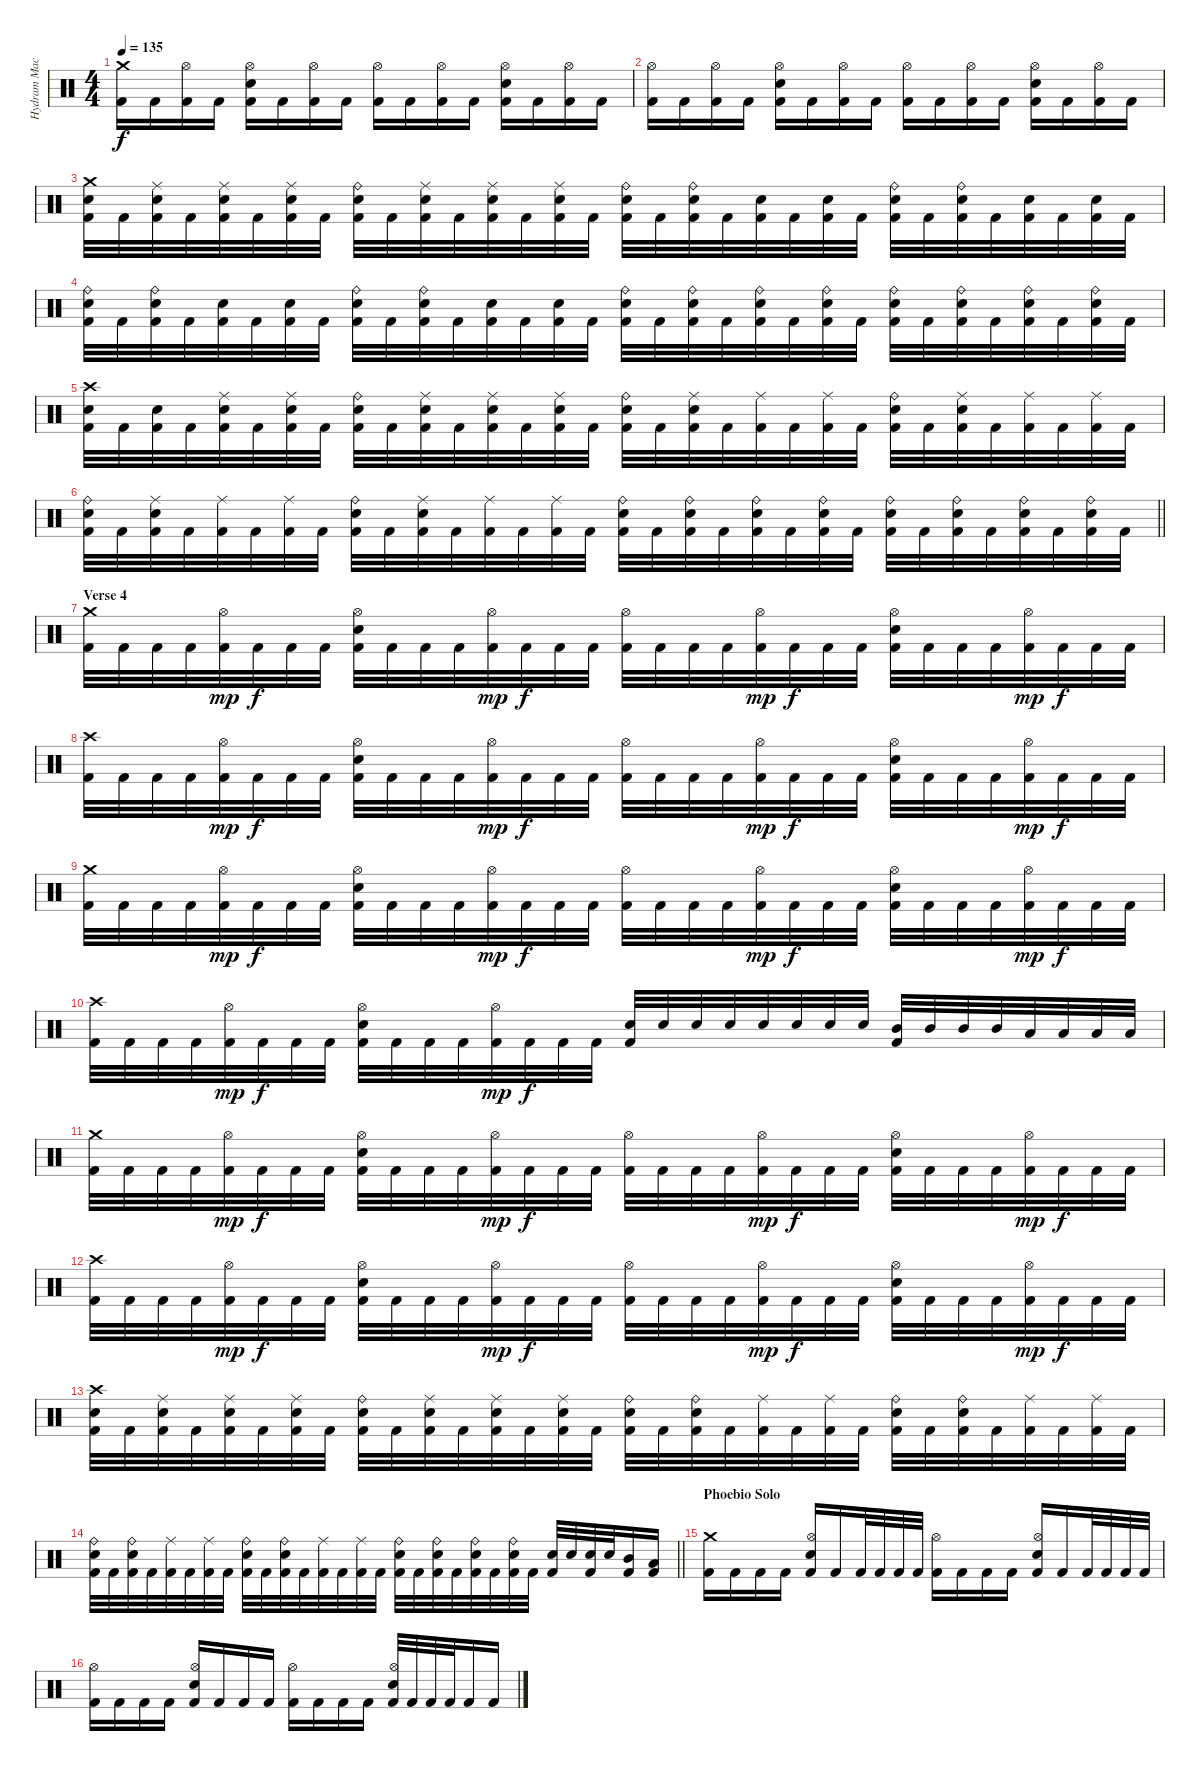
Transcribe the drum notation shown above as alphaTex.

\track ("Hydram Machine" "Hydram Mac") {instrument percussion}
\staff {score}
\articulation defaults
\ts (4 4)
\tempo 135
\clef neutral
\ks c
("Crash medium (hit)" "Kick (hit) 2").16{dy f} "Kick (hit) 2".16 ("Hi-Hat (open)" "Kick (hit) 2").16 "Kick (hit) 2".16 ("Hi-Hat (open)" "Electric Snare (hit)" "Kick (hit) 2").16 "Kick (hit) 2".16 ("Hi-Hat (open)" "Kick (hit) 2").16 "Kick (hit) 2".16 ("Hi-Hat (open)" "Kick (hit) 2").16 "Kick (hit) 2".16 ("Hi-Hat (open)" "Kick (hit) 2").16 "Kick (hit) 2".16 ("Hi-Hat (open)" "Electric Snare (hit)" "Kick (hit) 2").16 "Kick (hit) 2".16 ("Hi-Hat (open)" "Kick (hit) 2").16 "Kick (hit) 2".16 |
("Hi-Hat (open)" "Kick (hit) 2").16 "Kick (hit) 2".16 ("Hi-Hat (open)" "Kick (hit) 2").16 "Kick (hit) 2".16 ("Hi-Hat (open)" "Electric Snare (hit)" "Kick (hit) 2").16 "Kick (hit) 2".16 ("Hi-Hat (open)" "Kick (hit) 2").16 "Kick (hit) 2".16 ("Hi-Hat (open)" "Kick (hit) 2").16 "Kick (hit) 2".16 ("Hi-Hat (open)" "Kick (hit) 2").16 "Kick (hit) 2".16 ("Hi-Hat (open)" "Electric Snare (hit)" "Kick (hit) 2").16 "Kick (hit) 2".16 ("Hi-Hat (open)" "Kick (hit) 2").16 "Kick (hit) 2".16 |
("Crash medium (hit)" "Electric Snare (hit)" "Kick (hit) 2").32 "Kick (hit) 2".32 ("Ride (middle)" "Electric Snare (hit)" "Kick (hit) 2").32 "Kick (hit) 2".32 ("Ride (middle)" "Electric Snare (hit)" "Kick (hit) 2").32 "Kick (hit) 2".32 ("Ride (middle)" "Electric Snare (hit)" "Kick (hit) 2").32 "Kick (hit) 2".32 ("Ride (bell)" "Electric Snare (hit)" "Kick (hit) 2").32 "Kick (hit) 2".32 ("Ride (middle)" "Electric Snare (hit)" "Kick (hit) 2").32 "Kick (hit) 2".32 ("Ride (middle)" "Electric Snare (hit)" "Kick (hit) 2").32 "Kick (hit) 2".32 ("Ride (middle)" "Electric Snare (hit)" "Kick (hit) 2").32 "Kick (hit) 2".32 ("Ride (bell)" "Electric Snare (hit)" "Kick (hit) 2").32 "Kick (hit) 2".32 ("Ride (bell)" "Electric Snare (hit)" "Kick (hit) 2").32 "Kick (hit) 2".32 ("Electric Snare (hit)" "Kick (hit) 2").32 "Kick (hit) 2".32 ("Electric Snare (hit)" "Kick (hit) 2").32 "Kick (hit) 2".32 ("Ride (bell)" "Electric Snare (hit)" "Kick (hit) 2").32 "Kick (hit) 2".32 ("Ride (bell)" "Electric Snare (hit)" "Kick (hit) 2").32 "Kick (hit) 2".32 ("Electric Snare (hit)" "Kick (hit) 2").32 "Kick (hit) 2".32 ("Electric Snare (hit)" "Kick (hit) 2").32 "Kick (hit) 2".32 |
("Ride (bell)" "Electric Snare (hit)" "Kick (hit) 2").32 "Kick (hit) 2".32 ("Ride (bell)" "Electric Snare (hit)" "Kick (hit) 2").32 "Kick (hit) 2".32 ("Electric Snare (hit)" "Kick (hit) 2").32 "Kick (hit) 2".32 ("Electric Snare (hit)" "Kick (hit) 2").32 "Kick (hit) 2".32 ("Ride (bell)" "Electric Snare (hit)" "Kick (hit) 2").32 "Kick (hit) 2".32 ("Ride (bell)" "Electric Snare (hit)" "Kick (hit) 2").32 "Kick (hit) 2".32 ("Electric Snare (hit)" "Kick (hit) 2").32 "Kick (hit) 2".32 ("Electric Snare (hit)" "Kick (hit) 2").32 "Kick (hit) 2".32 ("Ride (bell)" "Electric Snare (hit)" "Kick (hit) 2").32 "Kick (hit) 2".32 ("Ride (bell)" "Electric Snare (hit)" "Kick (hit) 2").32 "Kick (hit) 2".32 ("Ride (bell)" "Electric Snare (hit)" "Kick (hit) 2").32 "Kick (hit) 2".32 ("Ride (bell)" "Electric Snare (hit)" "Kick (hit) 2").32 "Kick (hit) 2".32 ("Ride (bell)" "Electric Snare (hit)" "Kick (hit) 2").32 "Kick (hit) 2".32 ("Ride (bell)" "Electric Snare (hit)" "Kick (hit) 2").32 "Kick (hit) 2".32 ("Ride (bell)" "Electric Snare (hit)" "Kick (hit) 2").32 "Kick (hit) 2".32 ("Ride (bell)" "Electric Snare (hit)" "Kick (hit) 2").32 "Kick (hit) 2".32 |
("Crash high (hit)" "Electric Snare (hit)" "Kick (hit) 2").32 "Kick (hit) 2".32 ("Electric Snare (hit)" "Kick (hit) 2").32 "Kick (hit) 2".32 ("Ride (middle)" "Electric Snare (hit)" "Kick (hit) 2").32 "Kick (hit) 2".32 ("Ride (middle)" "Electric Snare (hit)" "Kick (hit) 2").32 "Kick (hit) 2".32 ("Ride (bell)" "Electric Snare (hit)" "Kick (hit) 2").32 "Kick (hit) 2".32 ("Ride (middle)" "Electric Snare (hit)" "Kick (hit) 2").32 "Kick (hit) 2".32 ("Ride (middle)" "Electric Snare (hit)" "Kick (hit) 2").32 "Kick (hit) 2".32 ("Ride (middle)" "Electric Snare (hit)" "Kick (hit) 2").32 "Kick (hit) 2".32 ("Ride (bell)" "Electric Snare (hit)" "Kick (hit) 2").32 "Kick (hit) 2".32 ("Ride (middle)" "Electric Snare (hit)" "Kick (hit) 2").32 "Kick (hit) 2".32 ("Ride (middle)" "Kick (hit) 2").32 "Kick (hit) 2".32 ("Ride (middle)" "Kick (hit) 2").32 "Kick (hit) 2".32 ("Ride (bell)" "Electric Snare (hit)" "Kick (hit) 2").32 "Kick (hit) 2".32 ("Ride (middle)" "Electric Snare (hit)" "Kick (hit) 2").32 "Kick (hit) 2".32 ("Ride (middle)" "Kick (hit) 2").32 "Kick (hit) 2".32 ("Ride (middle)" "Kick (hit) 2").32 "Kick (hit) 2".32 |
\barLineRight lightlight
("Ride (bell)" "Electric Snare (hit)" "Kick (hit) 2").32 "Kick (hit) 2".32 ("Ride (middle)" "Electric Snare (hit)" "Kick (hit) 2").32 "Kick (hit) 2".32 ("Ride (middle)" "Kick (hit) 2").32 "Kick (hit) 2".32 ("Ride (middle)" "Kick (hit) 2").32 "Kick (hit) 2".32 ("Ride (bell)" "Electric Snare (hit)" "Kick (hit) 2").32 "Kick (hit) 2".32 ("Ride (middle)" "Electric Snare (hit)" "Kick (hit) 2").32 "Kick (hit) 2".32 ("Ride (middle)" "Kick (hit) 2").32 "Kick (hit) 2".32 ("Ride (middle)" "Kick (hit) 2").32 "Kick (hit) 2".32 ("Ride (bell)" "Electric Snare (hit)" "Kick (hit) 2").32 "Kick (hit) 2".32 ("Ride (bell)" "Electric Snare (hit)" "Kick (hit) 2").32 "Kick (hit) 2".32 ("Ride (bell)" "Electric Snare (hit)" "Kick (hit) 2").32 "Kick (hit) 2".32 ("Ride (bell)" "Electric Snare (hit)" "Kick (hit) 2").32 "Kick (hit) 2".32 ("Ride (bell)" "Electric Snare (hit)" "Kick (hit) 2").32 "Kick (hit) 2".32 ("Ride (bell)" "Electric Snare (hit)" "Kick (hit) 2").32 "Kick (hit) 2".32 ("Ride (bell)" "Electric Snare (hit)" "Kick (hit) 2").32 "Kick (hit) 2".32 ("Ride (bell)" "Electric Snare (hit)" "Kick (hit) 2").32 "Kick (hit) 2".32 |
\section ("" "Verse 4")
("Crash medium (hit)" "Kick (hit) 2").32 "Kick (hit) 2".32 "Kick (hit) 2".32 "Kick (hit) 2".32 ("Hi-Hat (open)" "Kick (hit) 2").32{dy mp} "Kick (hit) 2".32{dy f} "Kick (hit) 2".32 "Kick (hit) 2".32 ("Hi-Hat (open)" "Electric Snare (hit)" "Kick (hit) 2").32 "Kick (hit) 2".32 "Kick (hit) 2".32 "Kick (hit) 2".32 ("Hi-Hat (open)" "Kick (hit) 2").32{dy mp} "Kick (hit) 2".32{dy f} "Kick (hit) 2".32 "Kick (hit) 2".32 ("Hi-Hat (open)" "Kick (hit) 2").32 "Kick (hit) 2".32 "Kick (hit) 2".32 "Kick (hit) 2".32 ("Hi-Hat (open)" "Kick (hit) 2").32{dy mp} "Kick (hit) 2".32{dy f} "Kick (hit) 2".32 "Kick (hit) 2".32 ("Hi-Hat (open)" "Electric Snare (hit)" "Kick (hit) 2").32 "Kick (hit) 2".32 "Kick (hit) 2".32 "Kick (hit) 2".32 ("Hi-Hat (open)" "Kick (hit) 2").32{dy mp} "Kick (hit) 2".32{dy f} "Kick (hit) 2".32 "Kick (hit) 2".32 |
("Crash high (hit)" "Kick (hit) 2").32 "Kick (hit) 2".32 "Kick (hit) 2".32 "Kick (hit) 2".32 ("Hi-Hat (open)" "Kick (hit) 2").32{dy mp} "Kick (hit) 2".32{dy f} "Kick (hit) 2".32 "Kick (hit) 2".32 ("Hi-Hat (open)" "Electric Snare (hit)" "Kick (hit) 2").32 "Kick (hit) 2".32 "Kick (hit) 2".32 "Kick (hit) 2".32 ("Hi-Hat (open)" "Kick (hit) 2").32{dy mp} "Kick (hit) 2".32{dy f} "Kick (hit) 2".32 "Kick (hit) 2".32 ("Hi-Hat (open)" "Kick (hit) 2").32 "Kick (hit) 2".32 "Kick (hit) 2".32 "Kick (hit) 2".32 ("Hi-Hat (open)" "Kick (hit) 2").32{dy mp} "Kick (hit) 2".32{dy f} "Kick (hit) 2".32 "Kick (hit) 2".32 ("Hi-Hat (open)" "Electric Snare (hit)" "Kick (hit) 2").32 "Kick (hit) 2".32 "Kick (hit) 2".32 "Kick (hit) 2".32 ("Hi-Hat (open)" "Kick (hit) 2").32{dy mp} "Kick (hit) 2".32{dy f} "Kick (hit) 2".32 "Kick (hit) 2".32 |
("Crash medium (hit)" "Kick (hit) 2").32 "Kick (hit) 2".32 "Kick (hit) 2".32 "Kick (hit) 2".32 ("Hi-Hat (open)" "Kick (hit) 2").32{dy mp} "Kick (hit) 2".32{dy f} "Kick (hit) 2".32 "Kick (hit) 2".32 ("Hi-Hat (open)" "Electric Snare (hit)" "Kick (hit) 2").32 "Kick (hit) 2".32 "Kick (hit) 2".32 "Kick (hit) 2".32 ("Hi-Hat (open)" "Kick (hit) 2").32{dy mp} "Kick (hit) 2".32{dy f} "Kick (hit) 2".32 "Kick (hit) 2".32 ("Hi-Hat (open)" "Kick (hit) 2").32 "Kick (hit) 2".32 "Kick (hit) 2".32 "Kick (hit) 2".32 ("Hi-Hat (open)" "Kick (hit) 2").32{dy mp} "Kick (hit) 2".32{dy f} "Kick (hit) 2".32 "Kick (hit) 2".32 ("Hi-Hat (open)" "Electric Snare (hit)" "Kick (hit) 2").32 "Kick (hit) 2".32 "Kick (hit) 2".32 "Kick (hit) 2".32 ("Hi-Hat (open)" "Kick (hit) 2").32{dy mp} "Kick (hit) 2".32{dy f} "Kick (hit) 2".32 "Kick (hit) 2".32 |
("Crash high (hit)" "Kick (hit) 2").32 "Kick (hit) 2".32 "Kick (hit) 2".32 "Kick (hit) 2".32 ("Hi-Hat (open)" "Kick (hit) 2").32{dy mp} "Kick (hit) 2".32{dy f} "Kick (hit) 2".32 "Kick (hit) 2".32 ("Hi-Hat (open)" "Electric Snare (hit)" "Kick (hit) 2").32 "Kick (hit) 2".32 "Kick (hit) 2".32 "Kick (hit) 2".32 ("Hi-Hat (open)" "Kick (hit) 2").32{dy mp} "Kick (hit) 2".32{dy f} "Kick (hit) 2".32 "Kick (hit) 2".32 ("Electric Snare (hit)" "Kick (hit) 2").32 "Electric Snare (hit)".32 "Electric Snare (hit)".32 "Electric Snare (hit)".32 "Electric Snare (hit)".32 "Electric Snare (hit)".32 "Electric Snare (hit)".32 "Electric Snare (hit)".32 ("Mid Tom (hit)" "Kick (hit) 2").32 "Mid Tom (hit)".32 "Mid Tom (hit)".32 "Mid Tom (hit)".32 "Low Tom (hit)".32 "Low Tom (hit)".32 "Low Tom (hit)".32 "Low Tom (hit)".32 |
("Crash medium (hit)" "Kick (hit) 2").32 "Kick (hit) 2".32 "Kick (hit) 2".32 "Kick (hit) 2".32 ("Hi-Hat (open)" "Kick (hit) 2").32{dy mp} "Kick (hit) 2".32{dy f} "Kick (hit) 2".32 "Kick (hit) 2".32 ("Hi-Hat (open)" "Electric Snare (hit)" "Kick (hit) 2").32 "Kick (hit) 2".32 "Kick (hit) 2".32 "Kick (hit) 2".32 ("Hi-Hat (open)" "Kick (hit) 2").32{dy mp} "Kick (hit) 2".32{dy f} "Kick (hit) 2".32 "Kick (hit) 2".32 ("Hi-Hat (open)" "Kick (hit) 2").32 "Kick (hit) 2".32 "Kick (hit) 2".32 "Kick (hit) 2".32 ("Hi-Hat (open)" "Kick (hit) 2").32{dy mp} "Kick (hit) 2".32{dy f} "Kick (hit) 2".32 "Kick (hit) 2".32 ("Hi-Hat (open)" "Electric Snare (hit)" "Kick (hit) 2").32 "Kick (hit) 2".32 "Kick (hit) 2".32 "Kick (hit) 2".32 ("Hi-Hat (open)" "Kick (hit) 2").32{dy mp} "Kick (hit) 2".32{dy f} "Kick (hit) 2".32 "Kick (hit) 2".32 |
("Crash high (hit)" "Kick (hit) 2").32 "Kick (hit) 2".32 "Kick (hit) 2".32 "Kick (hit) 2".32 ("Hi-Hat (open)" "Kick (hit) 2").32{dy mp} "Kick (hit) 2".32{dy f} "Kick (hit) 2".32 "Kick (hit) 2".32 ("Hi-Hat (open)" "Electric Snare (hit)" "Kick (hit) 2").32 "Kick (hit) 2".32 "Kick (hit) 2".32 "Kick (hit) 2".32 ("Hi-Hat (open)" "Kick (hit) 2").32{dy mp} "Kick (hit) 2".32{dy f} "Kick (hit) 2".32 "Kick (hit) 2".32 ("Hi-Hat (open)" "Kick (hit) 2").32 "Kick (hit) 2".32 "Kick (hit) 2".32 "Kick (hit) 2".32 ("Hi-Hat (open)" "Kick (hit) 2").32{dy mp} "Kick (hit) 2".32{dy f} "Kick (hit) 2".32 "Kick (hit) 2".32 ("Hi-Hat (open)" "Electric Snare (hit)" "Kick (hit) 2").32 "Kick (hit) 2".32 "Kick (hit) 2".32 "Kick (hit) 2".32 ("Hi-Hat (open)" "Kick (hit) 2").32{dy mp} "Kick (hit) 2".32{dy f} "Kick (hit) 2".32 "Kick (hit) 2".32 |
("Crash high (hit)" "Electric Snare (hit)" "Kick (hit) 2").32 "Kick (hit) 2".32 ("Ride (middle)" "Electric Snare (hit)" "Kick (hit) 2").32 "Kick (hit) 2".32 ("Ride (middle)" "Electric Snare (hit)" "Kick (hit) 2").32 "Kick (hit) 2".32 ("Ride (middle)" "Electric Snare (hit)" "Kick (hit) 2").32 "Kick (hit) 2".32 ("Ride (bell)" "Electric Snare (hit)" "Kick (hit) 2").32 "Kick (hit) 2".32 ("Ride (middle)" "Electric Snare (hit)" "Kick (hit) 2").32 "Kick (hit) 2".32 ("Ride (middle)" "Electric Snare (hit)" "Kick (hit) 2").32 "Kick (hit) 2".32 ("Ride (middle)" "Electric Snare (hit)" "Kick (hit) 2").32 "Kick (hit) 2".32 ("Ride (bell)" "Electric Snare (hit)" "Kick (hit) 2").32 "Kick (hit) 2".32 ("Ride (bell)" "Electric Snare (hit)" "Kick (hit) 2").32 "Kick (hit) 2".32 ("Ride (middle)" "Kick (hit) 2").32 "Kick (hit) 2".32 ("Ride (middle)" "Kick (hit) 2").32 "Kick (hit) 2".32 ("Ride (bell)" "Electric Snare (hit)" "Kick (hit) 2").32 "Kick (hit) 2".32 ("Ride (bell)" "Electric Snare (hit)" "Kick (hit) 2").32 "Kick (hit) 2".32 ("Ride (middle)" "Kick (hit) 2").32 "Kick (hit) 2".32 ("Ride (middle)" "Kick (hit) 2").32 "Kick (hit) 2".32 |
\barLineRight lightlight
("Ride (bell)" "Electric Snare (hit)" "Kick (hit) 2").32 "Kick (hit) 2".32 ("Ride (bell)" "Electric Snare (hit)" "Kick (hit) 2").32 "Kick (hit) 2".32 ("Ride (middle)" "Kick (hit) 2").32 "Kick (hit) 2".32 ("Ride (middle)" "Kick (hit) 2").32 "Kick (hit) 2".32 ("Ride (bell)" "Electric Snare (hit)" "Kick (hit) 2").32 "Kick (hit) 2".32 ("Ride (bell)" "Electric Snare (hit)" "Kick (hit) 2").32 "Kick (hit) 2".32 ("Ride (middle)" "Kick (hit) 2").32 "Kick (hit) 2".32 ("Ride (middle)" "Kick (hit) 2").32 "Kick (hit) 2".32 ("Ride (bell)" "Electric Snare (hit)" "Kick (hit) 2").32 "Kick (hit) 2".32 ("Ride (bell)" "Electric Snare (hit)" "Kick (hit) 2").32 "Kick (hit) 2".32 ("Ride (bell)" "Electric Snare (hit)" "Kick (hit) 2").32 "Kick (hit) 2".32 ("Ride (bell)" "Electric Snare (hit)" "Kick (hit) 2").32 "Kick (hit) 2".32 ("Electric Snare (hit)" "Kick (hit) 2").32 "Electric Snare (hit)".32 ("Electric Snare (hit)" "Kick (hit) 2").32 "Electric Snare (hit)".32 ("Mid Tom (hit)" "Kick (hit) 2").16 ("Low Tom (hit)" "Kick (hit) 2").16 |
\section ("" "Phoebio Solo")
("Crash medium (hit)" "Kick (hit) 2").16 "Kick (hit) 2".16 "Kick (hit) 2".16 "Kick (hit) 2".16 ("Hi-Hat (open)" "Electric Snare (hit)" "Kick (hit) 2").16 "Kick (hit) 2".16 "Kick (hit) 2".32 "Kick (hit) 2".32 "Kick (hit) 2".32 "Kick (hit) 2".32 ("Hi-Hat (open)" "Kick (hit) 2").16 "Kick (hit) 2".16 "Kick (hit) 2".16 "Kick (hit) 2".16 ("Hi-Hat (open)" "Electric Snare (hit)" "Kick (hit) 2").16 "Kick (hit) 2".16 "Kick (hit) 2".32 "Kick (hit) 2".32 "Kick (hit) 2".32 "Kick (hit) 2".32 |
("Hi-Hat (open)" "Kick (hit) 2").16 "Kick (hit) 2".16 "Kick (hit) 2".16 "Kick (hit) 2".16 ("Hi-Hat (open)" "Electric Snare (hit)" "Kick (hit) 2").16 "Kick (hit) 2".16 "Kick (hit) 2".16 "Kick (hit) 2".16 ("Hi-Hat (open)" "Kick (hit) 2").16 "Kick (hit) 2".16 "Kick (hit) 2".16 "Kick (hit) 2".16 ("Hi-Hat (open)" "Electric Snare (hit)" "Kick (hit) 2").32 "Kick (hit) 2".32 "Kick (hit) 2".32 "Kick (hit) 2".32 "Kick (hit) 2".16 "Kick (hit) 2".16
